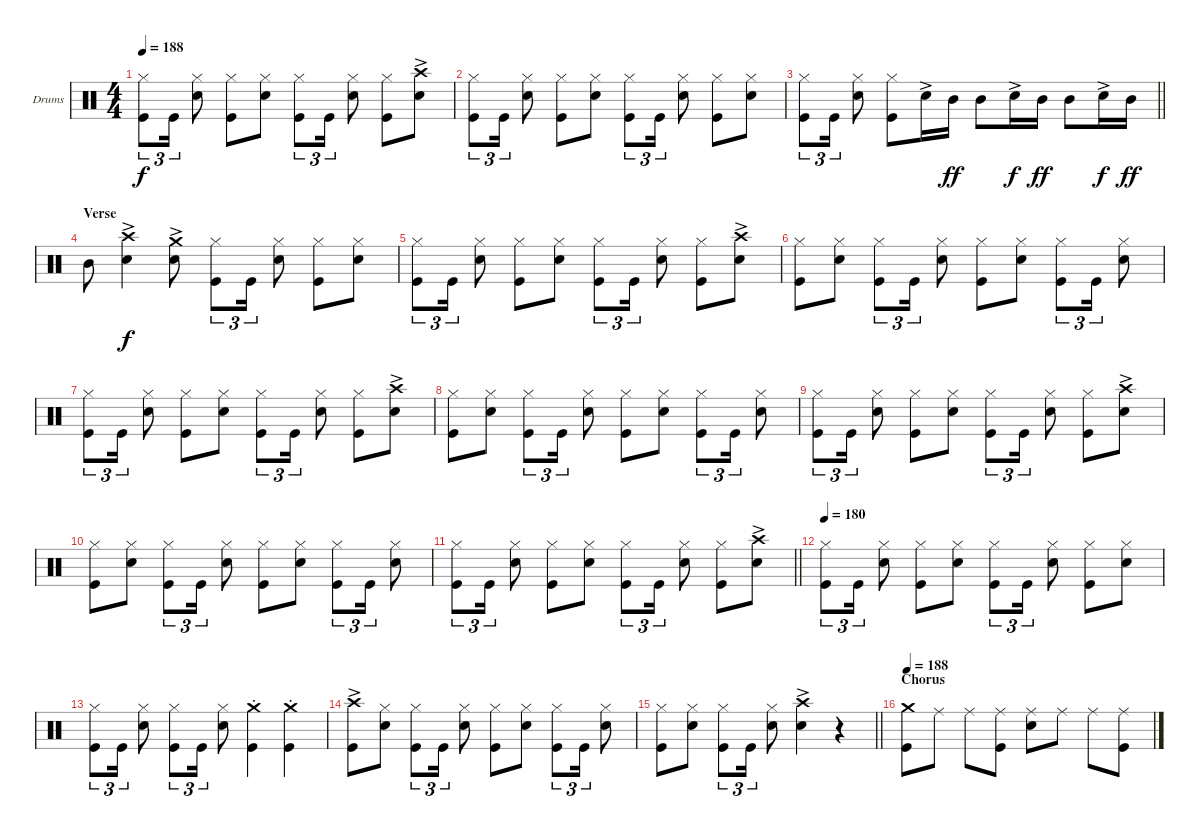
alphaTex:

\bracketExtendMode groupsimilarinstruments
\firstSystemTrackNameOrientation horizontal
\otherSystemsTrackNameOrientation horizontal
\track ("Drums" "Drums") {instrument percussion}
\staff {score}
\articulation defaults
\ts (4 4)
\tempo 188
\clef neutral
\ks c
("Kick (hit)" "Hi-Hat (closed)").8{tu (3 2) dy f} "Kick (hit)".16{tu (3 2)} ("Snare (hit) 2" "Hi-Hat (closed)").8 ("Kick (hit)" "Hi-Hat (closed)").8 ("Snare (hit) 2" "Hi-Hat (closed)").8 ("Kick (hit)" "Hi-Hat (closed)").8{tu (3 2)} "Kick (hit)".16{tu (3 2)} ("Snare (hit) 2" "Hi-Hat (closed)").8 ("Kick (hit)" "Hi-Hat (closed)").8 ("Snare (hit) 2"{ac} "Crash high (hit)"{ac}).8 |
("Kick (hit)" "Hi-Hat (closed)").8{tu (3 2)} "Kick (hit)".16{tu (3 2)} ("Snare (hit) 2" "Hi-Hat (closed)").8 ("Kick (hit)" "Hi-Hat (closed)").8 ("Snare (hit) 2" "Hi-Hat (closed)").8 ("Kick (hit)" "Hi-Hat (closed)").8{tu (3 2)} "Kick (hit)".16{tu (3 2)} ("Snare (hit) 2" "Hi-Hat (closed)").8 ("Kick (hit)" "Hi-Hat (closed)").8 ("Snare (hit) 2" "Hi-Hat (closed)").8 |
\barLineRight lightlight
("Kick (hit)" "Hi-Hat (closed)").8{tu (3 2)} "Kick (hit)".16{tu (3 2)} ("Snare (hit) 2" "Hi-Hat (closed)").8 ("Kick (hit)" "Hi-Hat (closed)").8 "Snare (hit) 2"{ac}.16 "Mid Tom (hit)".16{dy ff} "Mid Tom (hit)".8 "Snare (hit) 2"{ac}.16{dy f} "Mid Tom (hit)".16{dy ff} "Mid Tom (hit)".8 "Snare (hit) 2"{ac}.16{dy f} "Mid Tom (hit)".16{dy ff} |
\section ("" "Verse")
"Mid Tom (hit)".8 ("Snare (hit) 2"{ac} "Crash high (hit)"{ac}).4{dy f} ("Snare (hit) 2"{ac} "Crash medium (hit)"{ac}).8 ("Kick (hit)" "Hi-Hat (closed)").8{tu (3 2)} "Kick (hit)".16{tu (3 2)} ("Snare (hit) 2" "Hi-Hat (closed)").8 ("Kick (hit)" "Hi-Hat (closed)").8 ("Snare (hit) 2" "Hi-Hat (closed)").8 |
("Kick (hit)" "Hi-Hat (closed)").8{tu (3 2)} "Kick (hit)".16{tu (3 2)} ("Snare (hit) 2" "Hi-Hat (closed)").8 ("Kick (hit)" "Hi-Hat (closed)").8 ("Snare (hit) 2" "Hi-Hat (closed)").8 ("Kick (hit)" "Hi-Hat (closed)").8{tu (3 2)} "Kick (hit)".16{tu (3 2)} ("Snare (hit) 2" "Hi-Hat (closed)").8 ("Kick (hit)" "Hi-Hat (closed)").8 ("Snare (hit) 2"{ac} "Crash high (hit)"{ac}).8 |
("Kick (hit)" "Hi-Hat (closed)").8 ("Snare (hit) 2" "Hi-Hat (closed)").8 ("Kick (hit)" "Hi-Hat (closed)").8{tu (3 2)} "Kick (hit)".16{tu (3 2)} ("Snare (hit) 2" "Hi-Hat (closed)").8 ("Kick (hit)" "Hi-Hat (closed)").8 ("Snare (hit) 2" "Hi-Hat (closed)").8 ("Kick (hit)" "Hi-Hat (closed)").8{tu (3 2)} "Kick (hit)".16{tu (3 2)} ("Snare (hit) 2" "Hi-Hat (closed)").8 |
("Kick (hit)" "Hi-Hat (closed)").8{tu (3 2)} "Kick (hit)".16{tu (3 2)} ("Snare (hit) 2" "Hi-Hat (closed)").8 ("Kick (hit)" "Hi-Hat (closed)").8 ("Snare (hit) 2" "Hi-Hat (closed)").8 ("Kick (hit)" "Hi-Hat (closed)").8{tu (3 2)} "Kick (hit)".16{tu (3 2)} ("Snare (hit) 2" "Hi-Hat (closed)").8 ("Kick (hit)" "Hi-Hat (closed)").8 ("Snare (hit) 2"{ac} "Crash high (hit)"{ac}).8 |
("Kick (hit)" "Hi-Hat (closed)").8 ("Snare (hit) 2" "Hi-Hat (closed)").8 ("Kick (hit)" "Hi-Hat (closed)").8{tu (3 2)} "Kick (hit)".16{tu (3 2)} ("Snare (hit) 2" "Hi-Hat (closed)").8 ("Kick (hit)" "Hi-Hat (closed)").8 ("Snare (hit) 2" "Hi-Hat (closed)").8 ("Kick (hit)" "Hi-Hat (closed)").8{tu (3 2)} "Kick (hit)".16{tu (3 2)} ("Snare (hit) 2" "Hi-Hat (closed)").8 |
("Kick (hit)" "Hi-Hat (closed)").8{tu (3 2)} "Kick (hit)".16{tu (3 2)} ("Snare (hit) 2" "Hi-Hat (closed)").8 ("Kick (hit)" "Hi-Hat (closed)").8 ("Snare (hit) 2" "Hi-Hat (closed)").8 ("Kick (hit)" "Hi-Hat (closed)").8{tu (3 2)} "Kick (hit)".16{tu (3 2)} ("Snare (hit) 2" "Hi-Hat (closed)").8 ("Kick (hit)" "Hi-Hat (closed)").8 ("Snare (hit) 2"{ac} "Crash high (hit)"{ac}).8 |
("Kick (hit)" "Hi-Hat (closed)").8 ("Snare (hit) 2" "Hi-Hat (closed)").8 ("Kick (hit)" "Hi-Hat (closed)").8{tu (3 2)} "Kick (hit)".16{tu (3 2)} ("Snare (hit) 2" "Hi-Hat (closed)").8 ("Kick (hit)" "Hi-Hat (closed)").8 ("Snare (hit) 2" "Hi-Hat (closed)").8 ("Kick (hit)" "Hi-Hat (closed)").8{tu (3 2)} "Kick (hit)".16{tu (3 2)} ("Snare (hit) 2" "Hi-Hat (closed)").8 |
\barLineRight lightlight
("Kick (hit)" "Hi-Hat (closed)").8{tu (3 2)} "Kick (hit)".16{tu (3 2)} ("Snare (hit) 2" "Hi-Hat (closed)").8 ("Kick (hit)" "Hi-Hat (closed)").8 ("Snare (hit) 2" "Hi-Hat (closed)").8 ("Kick (hit)" "Hi-Hat (closed)").8{tu (3 2)} "Kick (hit)".16{tu (3 2)} ("Snare (hit) 2" "Hi-Hat (closed)").8 ("Kick (hit)" "Hi-Hat (closed)").8 ("Snare (hit) 2"{ac} "Crash high (hit)"{ac}).8 |
\tempo 180
("Kick (hit)" "Hi-Hat (closed)").8{tu (3 2)} "Kick (hit)".16{tu (3 2)} ("Snare (hit) 2" "Hi-Hat (closed)").8 ("Kick (hit)" "Hi-Hat (closed)").8 ("Snare (hit) 2" "Hi-Hat (closed)").8 ("Kick (hit)" "Hi-Hat (closed)").8{tu (3 2)} "Kick (hit)".16{tu (3 2)} ("Snare (hit) 2" "Hi-Hat (closed)").8 ("Kick (hit)" "Hi-Hat (closed)").8 ("Snare (hit) 2" "Hi-Hat (closed)").8 |
("Kick (hit)" "Hi-Hat (closed)").8{tu (3 2)} "Kick (hit)".16{tu (3 2)} ("Snare (hit) 2" "Hi-Hat (closed)").8 ("Kick (hit)" "Hi-Hat (closed)").8{tu (3 2)} "Kick (hit)".16{tu (3 2)} ("Snare (hit) 2" "Hi-Hat (closed)").8 ("Kick (hit)"{st} "Crash medium (hit)"{st}).4 ("Kick (hit)"{st} "Crash medium (hit)"{st}).4 |
("Kick (hit)" "Crash high (hit)"{ac}).8 ("Snare (hit) 2" "Hi-Hat (closed)").8 ("Kick (hit)" "Hi-Hat (closed)").8{tu (3 2)} "Kick (hit)".16{tu (3 2)} ("Snare (hit) 2" "Hi-Hat (closed)").8 ("Kick (hit)" "Hi-Hat (closed)").8 ("Snare (hit) 2" "Hi-Hat (closed)").8 ("Kick (hit)" "Hi-Hat (closed)").8{tu (3 2)} "Kick (hit)".16{tu (3 2)} ("Snare (hit) 2" "Hi-Hat (closed)").8 |
\barLineRight lightlight
("Kick (hit)" "Hi-Hat (closed)").8 ("Snare (hit) 2" "Hi-Hat (closed)").8 ("Kick (hit)" "Hi-Hat (closed)").8{tu (3 2)} "Kick (hit)".16{tu (3 2)} ("Snare (hit) 2" "Hi-Hat (closed)").8 ("Snare (hit) 2"{ac} "Crash high (hit)"{ac}).4 r.4 |
\section ("" "Chorus")
\tempo 188
("Kick (hit)" "Crash medium (hit)").8 "Ride (middle)".8 "Ride (middle)".8 ("Kick (hit)" "Ride (middle)").8 ("Snare (hit) 2" "Ride (middle)").8 "Ride (middle)".8 "Ride (middle)".8 ("Ride (middle)" "Kick (hit)").8
